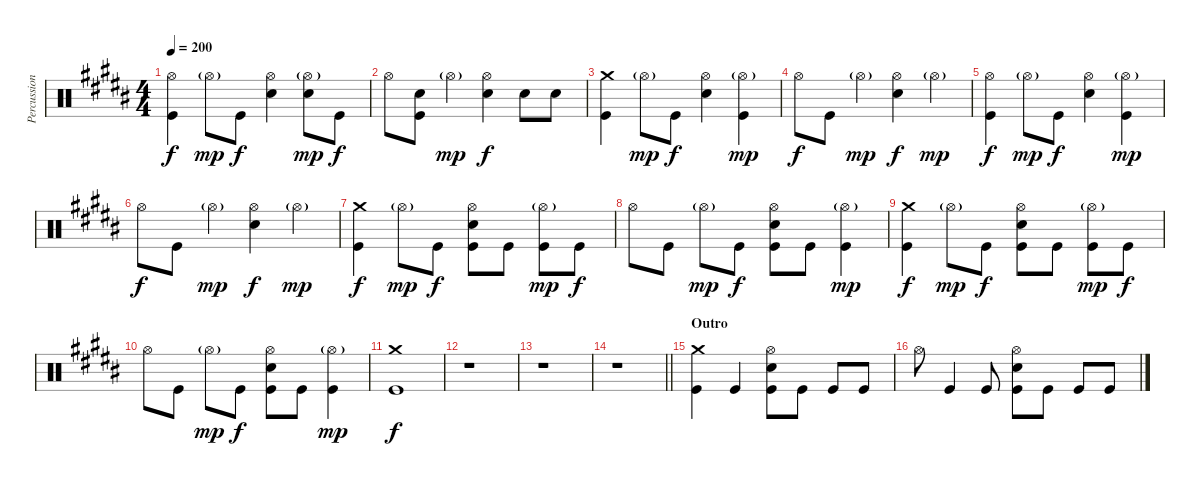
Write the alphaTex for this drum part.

\track ("Percussion" "Percussion") {instrument percussion}
\staff {score}
\articulation defaults
\ts (4 4)
\tempo 200
\clef neutral
\ks b
("Hi-Hat (open)" "Kick (hit)").4{dy f} "Hi-Hat (open)"{g}.8{dy mp} "Kick (hit)".8{dy f} ("Hi-Hat (open)" "Electric Snare (hit)").4 ("Hi-Hat (open)"{g} "Electric Snare (hit)").8{dy mp} "Kick (hit)".8{dy f} |
"Hi-Hat (open)".8 ("Electric Snare (hit)" "Kick (hit)").8 "Hi-Hat (open)"{g}.4{dy mp} ("Hi-Hat (open)" "Electric Snare (hit)").4{dy f} "Electric Snare (hit)".8 "Electric Snare (hit)".8 |
("Crash medium (hit)" "Kick (hit)").4 "Hi-Hat (open)"{g}.8{dy mp} "Kick (hit)".8{dy f} ("Hi-Hat (open)" "Electric Snare (hit)").4 ("Hi-Hat (open)"{g} "Kick (hit)").4{dy mp} |
"Hi-Hat (open)".8{dy f} "Kick (hit)".8 "Hi-Hat (open)"{g}.4{dy mp} ("Hi-Hat (open)" "Electric Snare (hit)").4{dy f} "Hi-Hat (open)"{g}.4{dy mp} |
("Hi-Hat (open)" "Kick (hit)").4{dy f} "Hi-Hat (open)"{g}.8{dy mp} "Kick (hit)".8{dy f} ("Hi-Hat (open)" "Electric Snare (hit)").4 ("Hi-Hat (open)"{g} "Kick (hit)").4{dy mp} |
"Hi-Hat (open)".8{dy f} "Kick (hit)".8 "Hi-Hat (open)"{g}.4{dy mp} ("Hi-Hat (open)" "Electric Snare (hit)").4{dy f} "Hi-Hat (open)"{g}.4{dy mp} |
("Crash medium (hit)" "Kick (hit)").4{dy f} "Hi-Hat (open)"{g}.8{dy mp} "Kick (hit)".8{dy f} ("Hi-Hat (open)" "Electric Snare (hit)" "Kick (hit)").8 "Kick (hit)".8 ("Hi-Hat (open)"{g} "Kick (hit)").8{dy mp} "Kick (hit)".8{dy f} |
"Hi-Hat (open)".8 "Kick (hit)".8 "Hi-Hat (open)"{g}.8{dy mp} "Kick (hit)".8{dy f} ("Hi-Hat (open)" "Electric Snare (hit)" "Kick (hit)").8 "Kick (hit)".8 ("Hi-Hat (open)"{g} "Kick (hit)").4{dy mp} |
("Crash medium (hit)" "Kick (hit)").4{dy f} "Hi-Hat (open)"{g}.8{dy mp} "Kick (hit)".8{dy f} ("Hi-Hat (open)" "Electric Snare (hit)" "Kick (hit)").8 "Kick (hit)".8 ("Hi-Hat (open)"{g} "Kick (hit)").8{dy mp} "Kick (hit)".8{dy f} |
"Hi-Hat (open)".8 "Kick (hit)".8 "Hi-Hat (open)"{g}.8{dy mp} "Kick (hit)".8{dy f} ("Hi-Hat (open)" "Electric Snare (hit)" "Kick (hit)").8 "Kick (hit)".8 ("Hi-Hat (open)"{g} "Kick (hit)").4{dy mp} |
("Crash medium (hit)" "Kick (hit)").1{dy f} |
r.1 |
r.1 |
\barLineRight lightlight
r.1 |
\section ("" "Outro")
("Crash medium (hit)" "Kick (hit)").4 "Kick (hit)".4 ("Hi-Hat (open)" "Electric Snare (hit)" "Kick (hit)").8 "Kick (hit)".8 "Kick (hit)".8 "Kick (hit)".8 |
"Hi-Hat (open)".8 "Kick (hit)".4 "Kick (hit)".8 ("Hi-Hat (open)" "Electric Snare (hit)" "Kick (hit)").8 "Kick (hit)".8 "Kick (hit)".8 "Kick (hit)".8
